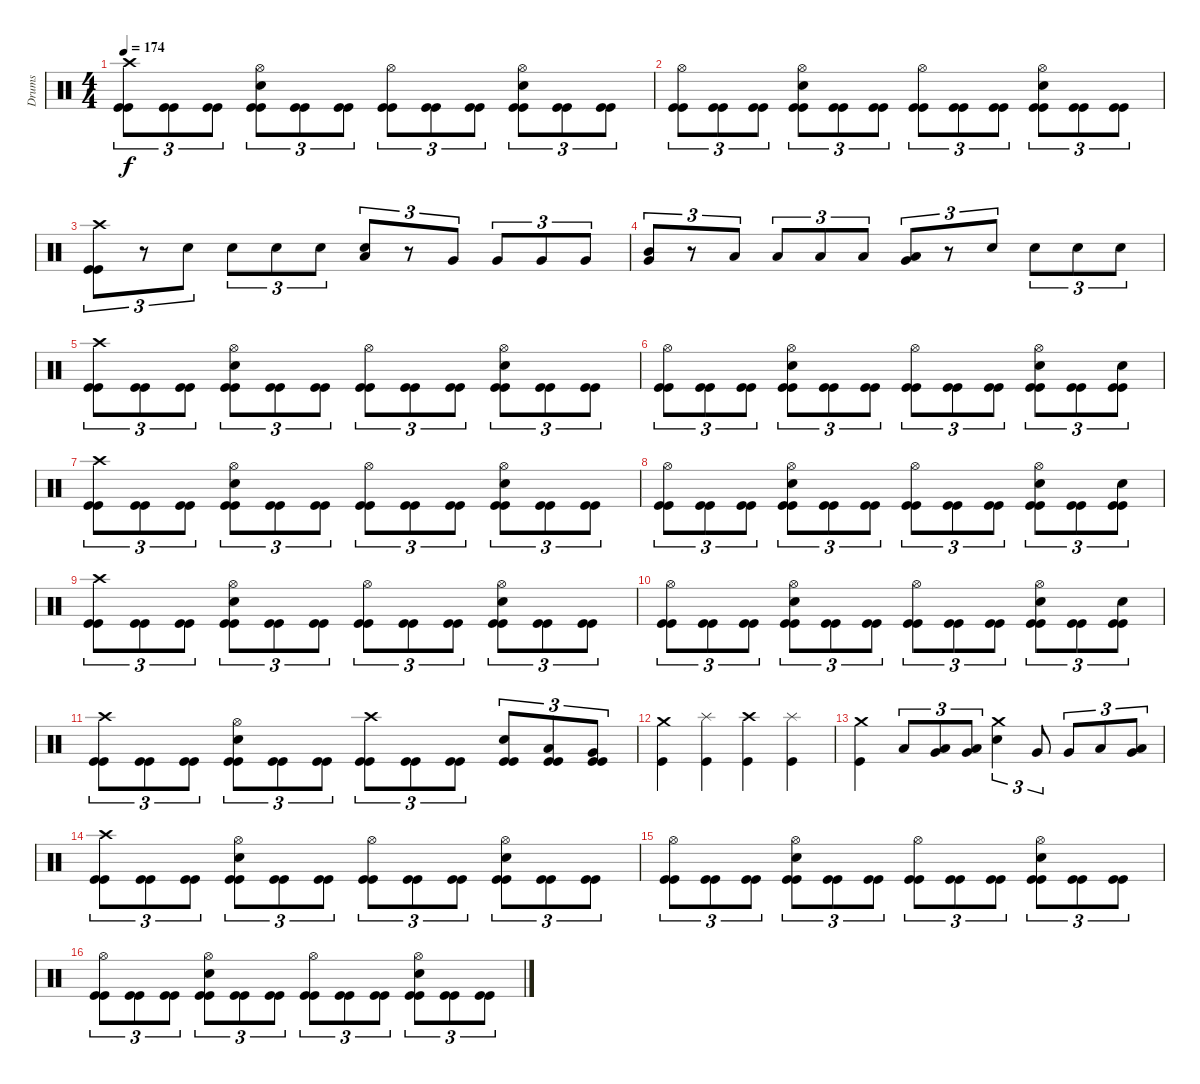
\track ("Drums" "Drums") {instrument percussion}
\staff {score}
\articulation defaults
\ts (4 4)
\tempo 174
\clef neutral
\ks c
("Kick (hit)" "Kick (hit)" "Crash high (hit)").8{tu (3 2) dy f} ("Kick (hit)" "Kick (hit)").8{tu (3 2)} ("Kick (hit)" "Kick (hit)").8{tu (3 2)} ("Kick (hit)" "Kick (hit)" "Snare (hit) 2" "Hi-Hat (open)").8{tu (3 2)} ("Kick (hit)" "Kick (hit)").8{tu (3 2)} ("Kick (hit)" "Kick (hit)").8{tu (3 2)} ("Kick (hit)" "Kick (hit)" "Hi-Hat (open)").8{tu (3 2)} ("Kick (hit)" "Kick (hit)").8{tu (3 2)} ("Kick (hit)" "Kick (hit)").8{tu (3 2)} ("Kick (hit)" "Kick (hit)" "Snare (hit) 2" "Hi-Hat (open)").8{tu (3 2)} ("Kick (hit)" "Kick (hit)").8{tu (3 2)} ("Kick (hit)" "Kick (hit)").8{tu (3 2)} |
("Kick (hit)" "Kick (hit)" "Hi-Hat (open)").8{tu (3 2)} ("Kick (hit)" "Kick (hit)").8{tu (3 2)} ("Kick (hit)" "Kick (hit)").8{tu (3 2)} ("Kick (hit)" "Kick (hit)" "Snare (hit) 2" "Hi-Hat (open)").8{tu (3 2)} ("Kick (hit)" "Kick (hit)").8{tu (3 2)} ("Kick (hit)" "Kick (hit)").8{tu (3 2)} ("Kick (hit)" "Kick (hit)" "Hi-Hat (open)").8{tu (3 2)} ("Kick (hit)" "Kick (hit)").8{tu (3 2)} ("Kick (hit)" "Kick (hit)").8{tu (3 2)} ("Kick (hit)" "Kick (hit)" "Snare (hit) 2" "Hi-Hat (open)").8{tu (3 2)} ("Kick (hit)" "Kick (hit)").8{tu (3 2)} ("Kick (hit)" "Kick (hit)").8{tu (3 2)} |
("Kick (hit)" "Kick (hit)" "Crash high (hit)").8{tu (3 2)} r.8{tu (3 2)} "Snare (hit) 2".8{tu (3 2)} "Snare (hit) 2".8{tu (3 2)} "Snare (hit) 2".8{tu (3 2)} "Snare (hit) 2".8{tu (3 2)} ("Snare (hit) 2" "Low Tom (hit)").8{tu (3 2)} r.8{tu (3 2)} "Very Low Tom (hit)".8{tu (3 2)} "Very Low Tom (hit)".8{tu (3 2)} "Very Low Tom (hit)".8{tu (3 2)} "Very Low Tom (hit)".8{tu (3 2)} |
("Very Low Tom (hit)" "Mid Tom (hit)").8{tu (3 2)} r.8{tu (3 2)} "Low Floor Tom (hit)".8{tu (3 2)} "Low Floor Tom (hit)".8{tu (3 2)} "Low Floor Tom (hit)".8{tu (3 2)} "Low Floor Tom (hit)".8{tu (3 2)} ("Low Floor Tom (hit)" "Very Low Tom (hit)").8{tu (3 2)} r.8{tu (3 2)} "Snare (hit) 2".8{tu (3 2)} "Snare (hit) 2".8{tu (3 2)} "Snare (hit) 2".8{tu (3 2)} "Snare (hit) 2".8{tu (3 2)} |
("Kick (hit)" "Kick (hit)" "Crash high (hit)").8{tu (3 2)} ("Kick (hit)" "Kick (hit)").8{tu (3 2)} ("Kick (hit)" "Kick (hit)").8{tu (3 2)} ("Kick (hit)" "Kick (hit)" "Snare (hit) 2" "Hi-Hat (open)").8{tu (3 2)} ("Kick (hit)" "Kick (hit)").8{tu (3 2)} ("Kick (hit)" "Kick (hit)").8{tu (3 2)} ("Kick (hit)" "Kick (hit)" "Hi-Hat (open)").8{tu (3 2)} ("Kick (hit)" "Kick (hit)").8{tu (3 2)} ("Kick (hit)" "Kick (hit)").8{tu (3 2)} ("Kick (hit)" "Kick (hit)" "Snare (hit) 2" "Hi-Hat (open)").8{tu (3 2)} ("Kick (hit)" "Kick (hit)").8{tu (3 2)} ("Kick (hit)" "Kick (hit)").8{tu (3 2)} |
("Kick (hit)" "Kick (hit)" "Hi-Hat (open)").8{tu (3 2)} ("Kick (hit)" "Kick (hit)").8{tu (3 2)} ("Kick (hit)" "Kick (hit)").8{tu (3 2)} ("Kick (hit)" "Kick (hit)" "Snare (hit) 2" "Hi-Hat (open)").8{tu (3 2)} ("Kick (hit)" "Kick (hit)").8{tu (3 2)} ("Kick (hit)" "Kick (hit)").8{tu (3 2)} ("Kick (hit)" "Kick (hit)" "Hi-Hat (open)").8{tu (3 2)} ("Kick (hit)" "Kick (hit)").8{tu (3 2)} ("Kick (hit)" "Kick (hit)").8{tu (3 2)} ("Kick (hit)" "Kick (hit)" "Snare (hit) 2" "Hi-Hat (open)").8{tu (3 2)} ("Kick (hit)" "Kick (hit)").8{tu (3 2)} ("Kick (hit)" "Kick (hit)" "Snare (hit) 2").8{tu (3 2)} |
("Kick (hit)" "Kick (hit)" "Crash high (hit)").8{tu (3 2)} ("Kick (hit)" "Kick (hit)").8{tu (3 2)} ("Kick (hit)" "Kick (hit)").8{tu (3 2)} ("Kick (hit)" "Kick (hit)" "Snare (hit) 2" "Hi-Hat (open)").8{tu (3 2)} ("Kick (hit)" "Kick (hit)").8{tu (3 2)} ("Kick (hit)" "Kick (hit)").8{tu (3 2)} ("Kick (hit)" "Kick (hit)" "Hi-Hat (open)").8{tu (3 2)} ("Kick (hit)" "Kick (hit)").8{tu (3 2)} ("Kick (hit)" "Kick (hit)").8{tu (3 2)} ("Kick (hit)" "Kick (hit)" "Snare (hit) 2" "Hi-Hat (open)").8{tu (3 2)} ("Kick (hit)" "Kick (hit)").8{tu (3 2)} ("Kick (hit)" "Kick (hit)").8{tu (3 2)} |
("Kick (hit)" "Kick (hit)" "Hi-Hat (open)").8{tu (3 2)} ("Kick (hit)" "Kick (hit)").8{tu (3 2)} ("Kick (hit)" "Kick (hit)").8{tu (3 2)} ("Kick (hit)" "Kick (hit)" "Snare (hit) 2" "Hi-Hat (open)").8{tu (3 2)} ("Kick (hit)" "Kick (hit)").8{tu (3 2)} ("Kick (hit)" "Kick (hit)").8{tu (3 2)} ("Kick (hit)" "Kick (hit)" "Hi-Hat (open)").8{tu (3 2)} ("Kick (hit)" "Kick (hit)").8{tu (3 2)} ("Kick (hit)" "Kick (hit)").8{tu (3 2)} ("Kick (hit)" "Kick (hit)" "Snare (hit) 2" "Hi-Hat (open)").8{tu (3 2)} ("Kick (hit)" "Kick (hit)").8{tu (3 2)} ("Kick (hit)" "Kick (hit)" "Snare (hit) 2").8{tu (3 2)} |
("Kick (hit)" "Kick (hit)" "Crash high (hit)").8{tu (3 2)} ("Kick (hit)" "Kick (hit)").8{tu (3 2)} ("Kick (hit)" "Kick (hit)").8{tu (3 2)} ("Kick (hit)" "Kick (hit)" "Snare (hit) 2" "Hi-Hat (open)").8{tu (3 2)} ("Kick (hit)" "Kick (hit)").8{tu (3 2)} ("Kick (hit)" "Kick (hit)").8{tu (3 2)} ("Kick (hit)" "Kick (hit)" "Hi-Hat (open)").8{tu (3 2)} ("Kick (hit)" "Kick (hit)").8{tu (3 2)} ("Kick (hit)" "Kick (hit)").8{tu (3 2)} ("Kick (hit)" "Kick (hit)" "Snare (hit) 2" "Hi-Hat (open)").8{tu (3 2)} ("Kick (hit)" "Kick (hit)").8{tu (3 2)} ("Kick (hit)" "Kick (hit)").8{tu (3 2)} |
("Kick (hit)" "Kick (hit)" "Hi-Hat (open)").8{tu (3 2)} ("Kick (hit)" "Kick (hit)").8{tu (3 2)} ("Kick (hit)" "Kick (hit)").8{tu (3 2)} ("Kick (hit)" "Kick (hit)" "Snare (hit) 2" "Hi-Hat (open)").8{tu (3 2)} ("Kick (hit)" "Kick (hit)").8{tu (3 2)} ("Kick (hit)" "Kick (hit)").8{tu (3 2)} ("Kick (hit)" "Kick (hit)" "Hi-Hat (open)").8{tu (3 2)} ("Kick (hit)" "Kick (hit)").8{tu (3 2)} ("Kick (hit)" "Kick (hit)").8{tu (3 2)} ("Kick (hit)" "Kick (hit)" "Snare (hit) 2" "Hi-Hat (open)").8{tu (3 2)} ("Kick (hit)" "Kick (hit)").8{tu (3 2)} ("Kick (hit)" "Kick (hit)" "Snare (hit) 2").8{tu (3 2)} |
("Kick (hit)" "Kick (hit)" "Crash high (hit)").8{tu (3 2)} ("Kick (hit)" "Kick (hit)").8{tu (3 2)} ("Kick (hit)" "Kick (hit)").8{tu (3 2)} ("Kick (hit)" "Kick (hit)" "Snare (hit) 2" "Hi-Hat (open)").8{tu (3 2)} ("Kick (hit)" "Kick (hit)").8{tu (3 2)} ("Kick (hit)" "Kick (hit)").8{tu (3 2)} ("Kick (hit)" "Kick (hit)" "Crash high (hit)").8{tu (3 2)} ("Kick (hit)" "Kick (hit)").8{tu (3 2)} ("Kick (hit)" "Kick (hit)").8{tu (3 2)} ("Kick (hit)" "Kick (hit)" "Snare (hit) 2").8{tu (3 2)} ("Kick (hit)" "Kick (hit)" "Low Tom (hit)").8{tu (3 2)} ("Kick (hit)" "Kick (hit)" "Very Low Tom (hit)").8{tu (3 2)} |
("Kick (hit)" "Crash medium (hit)").4 ("Kick (hit)" "Splash (hit)").4 ("Kick (hit)" "Crash high (hit)").4 ("Kick (hit)" "Splash (hit)").4 |
("Kick (hit)" "Crash medium (hit)").4 "Low Tom (hit)".8{tu (3 2)} ("Very Low Tom (hit)" "Low Tom (hit)").8{tu (3 2)} ("Very Low Tom (hit)" "Low Tom (hit)").8{tu (3 2)} ("Electric Snare (hit)" "Crash medium (hit)").4{tu (3 2)} "Very Low Tom (hit)".8{tu (3 2)} "Very Low Tom (hit)".8{tu (3 2)} "Low Tom (hit)".8{tu (3 2)} ("Low Tom (hit)" "Very Low Tom (hit)").8{tu (3 2)} |
("Kick (hit)" "Kick (hit)" "Crash high (hit)").8{tu (3 2)} ("Kick (hit)" "Kick (hit)").8{tu (3 2)} ("Kick (hit)" "Kick (hit)").8{tu (3 2)} ("Kick (hit)" "Kick (hit)" "Snare (hit) 2" "Hi-Hat (open)").8{tu (3 2)} ("Kick (hit)" "Kick (hit)").8{tu (3 2)} ("Kick (hit)" "Kick (hit)").8{tu (3 2)} ("Kick (hit)" "Kick (hit)" "Hi-Hat (open)").8{tu (3 2)} ("Kick (hit)" "Kick (hit)").8{tu (3 2)} ("Kick (hit)" "Kick (hit)").8{tu (3 2)} ("Kick (hit)" "Kick (hit)" "Snare (hit) 2" "Hi-Hat (open)").8{tu (3 2)} ("Kick (hit)" "Kick (hit)").8{tu (3 2)} ("Kick (hit)" "Kick (hit)").8{tu (3 2)} |
("Kick (hit)" "Kick (hit)" "Hi-Hat (open)").8{tu (3 2)} ("Kick (hit)" "Kick (hit)").8{tu (3 2)} ("Kick (hit)" "Kick (hit)").8{tu (3 2)} ("Kick (hit)" "Kick (hit)" "Snare (hit) 2" "Hi-Hat (open)").8{tu (3 2)} ("Kick (hit)" "Kick (hit)").8{tu (3 2)} ("Kick (hit)" "Kick (hit)").8{tu (3 2)} ("Kick (hit)" "Kick (hit)" "Hi-Hat (open)").8{tu (3 2)} ("Kick (hit)" "Kick (hit)").8{tu (3 2)} ("Kick (hit)" "Kick (hit)").8{tu (3 2)} ("Kick (hit)" "Kick (hit)" "Snare (hit) 2" "Hi-Hat (open)").8{tu (3 2)} ("Kick (hit)" "Kick (hit)").8{tu (3 2)} ("Kick (hit)" "Kick (hit)").8{tu (3 2)} |
("Kick (hit)" "Kick (hit)" "Hi-Hat (open)").8{tu (3 2)} ("Kick (hit)" "Kick (hit)").8{tu (3 2)} ("Kick (hit)" "Kick (hit)").8{tu (3 2)} ("Kick (hit)" "Kick (hit)" "Snare (hit) 2" "Hi-Hat (open)").8{tu (3 2)} ("Kick (hit)" "Kick (hit)").8{tu (3 2)} ("Kick (hit)" "Kick (hit)").8{tu (3 2)} ("Kick (hit)" "Kick (hit)" "Hi-Hat (open)").8{tu (3 2)} ("Kick (hit)" "Kick (hit)").8{tu (3 2)} ("Kick (hit)" "Kick (hit)").8{tu (3 2)} ("Kick (hit)" "Kick (hit)" "Snare (hit) 2" "Hi-Hat (open)").8{tu (3 2)} ("Kick (hit)" "Kick (hit)").8{tu (3 2)} ("Kick (hit)" "Kick (hit)").8{tu (3 2)}
